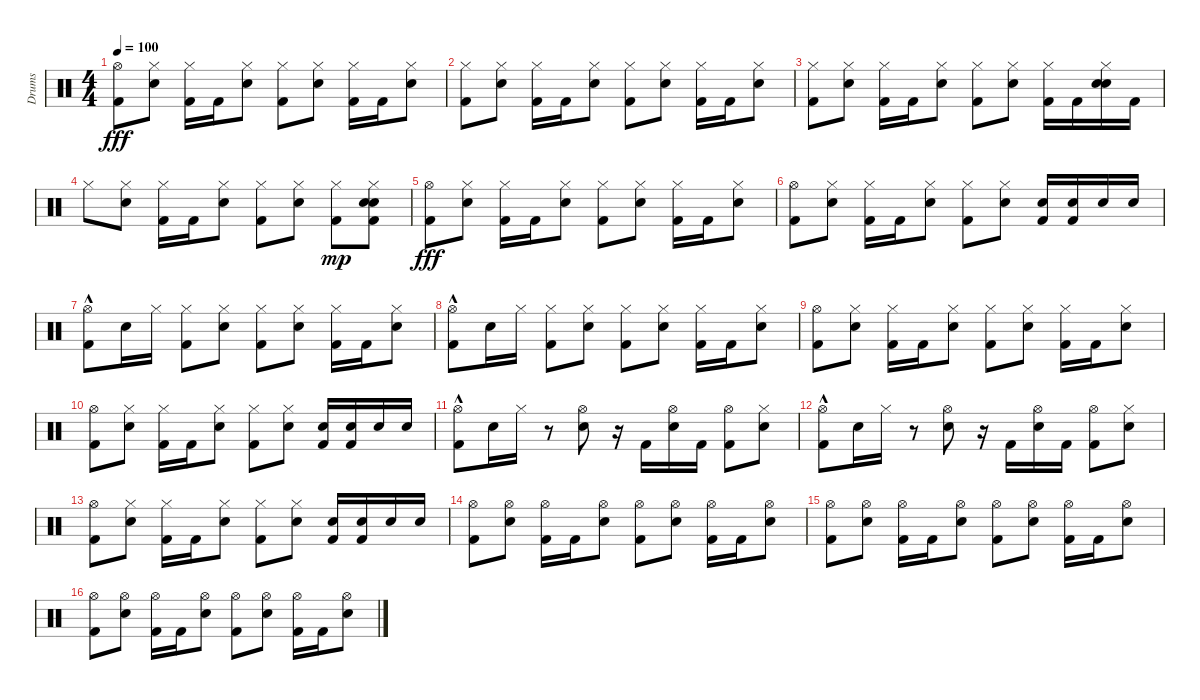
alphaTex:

\track ("Drums" "Drums") {instrument percussion}
\staff {score}
\articulation defaults
\ts (4 4)
\tempo 100
\clef neutral
\ks c
("Kick (hit) 2" "Hi-Hat (open)").8{dy fff} ("Hi-Hat (closed)" "Electric Snare (hit)").8 ("Hi-Hat (closed)" "Kick (hit) 2").16 "Kick (hit) 2".16 ("Hi-Hat (closed)" "Electric Snare (hit)").8 ("Kick (hit) 2" "Hi-Hat (closed)").8 ("Hi-Hat (closed)" "Electric Snare (hit)").8 ("Kick (hit) 2" "Hi-Hat (closed)").16 "Kick (hit) 2".16 ("Hi-Hat (closed)" "Electric Snare (hit)").8 |
("Kick (hit) 2" "Hi-Hat (closed)").8 ("Hi-Hat (closed)" "Electric Snare (hit)").8 ("Hi-Hat (closed)" "Kick (hit) 2").16 "Kick (hit) 2".16 ("Hi-Hat (closed)" "Electric Snare (hit)").8 ("Kick (hit) 2" "Hi-Hat (closed)").8 ("Hi-Hat (closed)" "Electric Snare (hit)").8 ("Kick (hit) 2" "Hi-Hat (closed)").16 "Kick (hit) 2".16 ("Hi-Hat (closed)" "Electric Snare (hit)").8 |
("Kick (hit) 2" "Hi-Hat (closed)").8 ("Hi-Hat (closed)" "Electric Snare (hit)").8 ("Hi-Hat (closed)" "Kick (hit) 2").16 "Kick (hit) 2".16 ("Hi-Hat (closed)" "Electric Snare (hit)").8 ("Kick (hit) 2" "Hi-Hat (closed)").8 ("Hi-Hat (closed)" "Electric Snare (hit)").8 ("Kick (hit) 2" "Hi-Hat (closed)").16 "Kick (hit) 2".16 ("Hi-Hat (closed)" "Electric Snare (hit)" "Snare (hit) 2").16 "Kick (hit) 2".16 |
"Hi-Hat (closed)".8 ("Hi-Hat (closed)" "Electric Snare (hit)").8 ("Hi-Hat (closed)" "Kick (hit) 2").16 "Kick (hit) 2".16 ("Hi-Hat (closed)" "Electric Snare (hit)").8 ("Kick (hit) 2" "Hi-Hat (closed)").8 ("Hi-Hat (closed)" "Electric Snare (hit)").8 ("Hi-Hat (closed)" "Kick (hit) 2").8{dy mp} ("Hi-Hat (closed)" "Electric Snare (hit)" "Snare (hit) 2" "Kick (hit) 2").8 |
("Kick (hit) 2" "Hi-Hat (open)").8{dy fff} ("Hi-Hat (closed)" "Electric Snare (hit)").8 ("Hi-Hat (closed)" "Kick (hit) 2").16 "Kick (hit) 2".16 ("Hi-Hat (closed)" "Electric Snare (hit)").8 ("Kick (hit) 2" "Hi-Hat (closed)").8 ("Hi-Hat (closed)" "Electric Snare (hit)").8 ("Kick (hit) 2" "Hi-Hat (closed)").16 "Kick (hit) 2".16 ("Hi-Hat (closed)" "Electric Snare (hit)").8 |
("Kick (hit) 2" "Hi-Hat (open)").8 ("Hi-Hat (closed)" "Electric Snare (hit)").8 ("Hi-Hat (closed)" "Kick (hit) 2").16 "Kick (hit) 2".16 ("Hi-Hat (closed)" "Electric Snare (hit)").8 ("Kick (hit) 2" "Hi-Hat (closed)").8 ("Hi-Hat (closed)" "Electric Snare (hit)").8 ("Kick (hit) 2" "Electric Snare (hit)").16 ("Kick (hit) 2" "Electric Snare (hit)").16 "Electric Snare (hit)".16 "Electric Snare (hit)".16 |
("Hi-Hat (open)" "Kick (hit) 2"{hac}).8 "Electric Snare (hit)".16 "Hi-Hat (closed)".16 ("Hi-Hat (closed)" "Kick (hit) 2").8 ("Hi-Hat (closed)" "Electric Snare (hit)").8 ("Kick (hit) 2" "Hi-Hat (closed)").8 ("Hi-Hat (closed)" "Electric Snare (hit)").8 ("Kick (hit) 2" "Hi-Hat (closed)").16 "Kick (hit) 2".16 ("Hi-Hat (closed)" "Electric Snare (hit)").8 |
("Hi-Hat (open)" "Kick (hit) 2"{hac}).8 "Electric Snare (hit)".16 "Hi-Hat (closed)".16 ("Hi-Hat (closed)" "Kick (hit) 2").8 ("Hi-Hat (closed)" "Electric Snare (hit)").8 ("Kick (hit) 2" "Hi-Hat (closed)").8 ("Hi-Hat (closed)" "Electric Snare (hit)").8 ("Kick (hit) 2" "Hi-Hat (closed)").16 "Kick (hit) 2".16 ("Hi-Hat (closed)" "Electric Snare (hit)").8 |
("Kick (hit) 2" "Hi-Hat (open)").8 ("Hi-Hat (closed)" "Electric Snare (hit)").8 ("Hi-Hat (closed)" "Kick (hit) 2").16 "Kick (hit) 2".16 ("Hi-Hat (closed)" "Electric Snare (hit)").8 ("Kick (hit) 2" "Hi-Hat (closed)").8 ("Hi-Hat (closed)" "Electric Snare (hit)").8 ("Kick (hit) 2" "Hi-Hat (closed)").16 "Kick (hit) 2".16 ("Hi-Hat (closed)" "Electric Snare (hit)").8 |
("Kick (hit) 2" "Hi-Hat (open)").8 ("Hi-Hat (closed)" "Electric Snare (hit)").8 ("Hi-Hat (closed)" "Kick (hit) 2").16 "Kick (hit) 2".16 ("Hi-Hat (closed)" "Electric Snare (hit)").8 ("Kick (hit) 2" "Hi-Hat (closed)").8 ("Hi-Hat (closed)" "Electric Snare (hit)").8 ("Kick (hit) 2" "Electric Snare (hit)").16 ("Kick (hit) 2" "Electric Snare (hit)").16 "Electric Snare (hit)".16 "Electric Snare (hit)".16 |
("Hi-Hat (open)" "Kick (hit) 2"{hac}).8 "Electric Snare (hit)".16 "Hi-Hat (closed)".16 r.8 ("Hi-Hat (open)" "Electric Snare (hit)").8 r.16 "Kick (hit) 2".16 ("Hi-Hat (open)" "Electric Snare (hit)").16 "Kick (hit) 2".16 ("Kick (hit) 2" "Hi-Hat (open)").8 ("Hi-Hat (closed)" "Electric Snare (hit)").8 |
("Hi-Hat (open)" "Kick (hit) 2"{hac}).8 "Electric Snare (hit)".16 "Hi-Hat (closed)".16 r.8 ("Hi-Hat (open)" "Electric Snare (hit)").8 r.16 "Kick (hit) 2".16 ("Hi-Hat (open)" "Electric Snare (hit)").16 "Kick (hit) 2".16 ("Kick (hit) 2" "Hi-Hat (open)").8 ("Hi-Hat (closed)" "Electric Snare (hit)").8 |
("Kick (hit) 2" "Hi-Hat (open)").8 ("Hi-Hat (closed)" "Electric Snare (hit)").8 ("Hi-Hat (closed)" "Kick (hit) 2").16 "Kick (hit) 2".16 ("Hi-Hat (closed)" "Electric Snare (hit)").8 ("Kick (hit) 2" "Hi-Hat (closed)").8 ("Hi-Hat (closed)" "Electric Snare (hit)").8 ("Kick (hit) 2" "Electric Snare (hit)").16 ("Kick (hit) 2" "Electric Snare (hit)").16 "Electric Snare (hit)".16 "Electric Snare (hit)".16 |
("Kick (hit) 2" "Hi-Hat (open)").8 ("Hi-Hat (open)" "Electric Snare (hit)").8 ("Hi-Hat (open)" "Kick (hit) 2").16 "Kick (hit) 2".16 ("Hi-Hat (open)" "Electric Snare (hit)").8 ("Kick (hit) 2" "Hi-Hat (open)").8 ("Hi-Hat (open)" "Electric Snare (hit)").8 ("Kick (hit) 2" "Hi-Hat (open)").16 "Kick (hit) 2".16 ("Hi-Hat (open)" "Electric Snare (hit)").8 |
("Kick (hit) 2" "Hi-Hat (open)").8 ("Hi-Hat (open)" "Electric Snare (hit)").8 ("Hi-Hat (open)" "Kick (hit) 2").16 "Kick (hit) 2".16 ("Hi-Hat (open)" "Electric Snare (hit)").8 ("Kick (hit) 2" "Hi-Hat (open)").8 ("Hi-Hat (open)" "Electric Snare (hit)").8 ("Kick (hit) 2" "Hi-Hat (open)").16 "Kick (hit) 2".16 ("Hi-Hat (open)" "Electric Snare (hit)").8 |
("Kick (hit) 2" "Hi-Hat (open)").8 ("Hi-Hat (open)" "Electric Snare (hit)").8 ("Hi-Hat (open)" "Kick (hit) 2").16 "Kick (hit) 2".16 ("Hi-Hat (open)" "Electric Snare (hit)").8 ("Kick (hit) 2" "Hi-Hat (open)").8 ("Hi-Hat (open)" "Electric Snare (hit)").8 ("Hi-Hat (open)" "Kick (hit) 2").16 "Kick (hit) 2".16 ("Hi-Hat (open)" "Electric Snare (hit)").8
